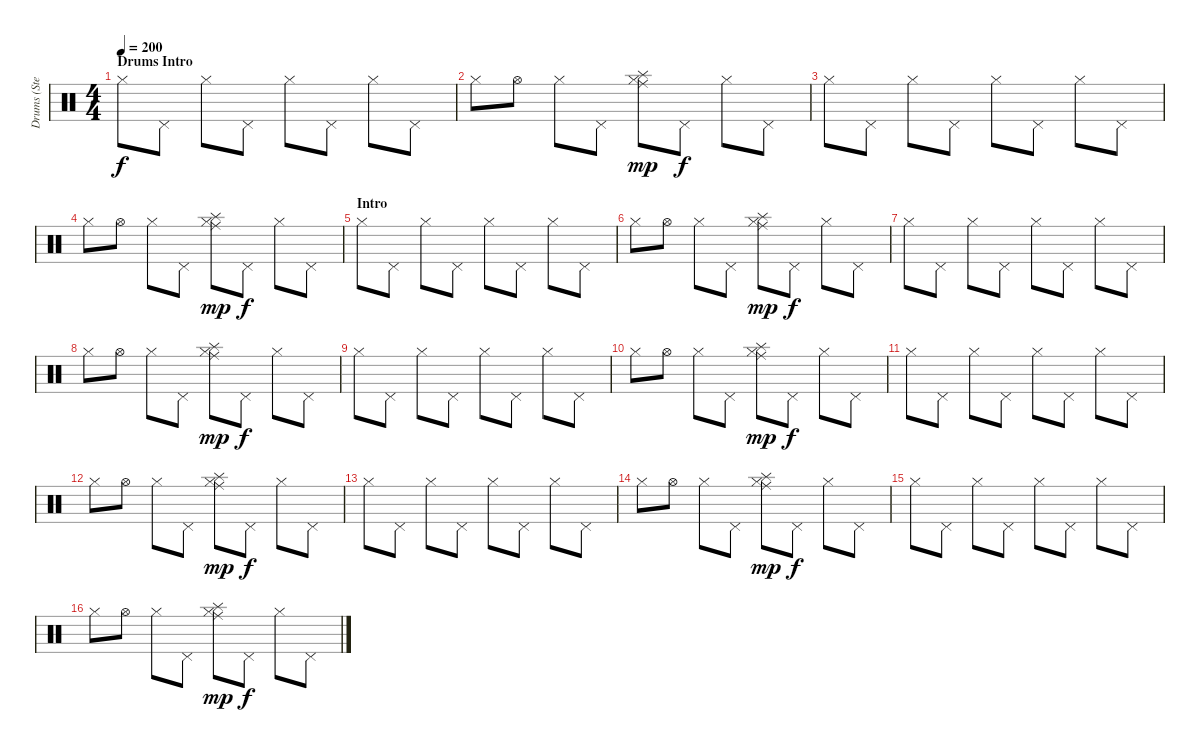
\track ("Drums (Stevo32)" "Drums (Ste") {instrument percussion}
\staff {score}
\articulation defaults
\ts (4 4)
\section ("" "Drums Intro")
\tempo 200
\clef neutral
\ks c "Hi-Hat (closed)".8{dy f} "Pedal Hi-Hat (hit)".8 "Hi-Hat (closed)".8 "Pedal Hi-Hat (hit)".8 "Hi-Hat (closed)".8 "Pedal Hi-Hat (hit)".8 "Hi-Hat (closed)".8 "Pedal Hi-Hat (hit)".8
|
"Hi-Hat (closed)".8 "Hi-Hat (open)".8 "Hi-Hat (closed)".8 "Pedal Hi-Hat (hit)".8 ("Hi-Hat (closed)" "Ride (middle)" "Splash (hit)").8{dy mp} "Pedal Hi-Hat (hit)".8{dy f} "Hi-Hat (closed)".8 "Pedal Hi-Hat (hit)".8 |
"Hi-Hat (closed)".8 "Pedal Hi-Hat (hit)".8 "Hi-Hat (closed)".8 "Pedal Hi-Hat (hit)".8 "Hi-Hat (closed)".8 "Pedal Hi-Hat (hit)".8 "Hi-Hat (closed)".8 "Pedal Hi-Hat (hit)".8 |
"Hi-Hat (closed)".8 "Hi-Hat (open)".8 "Hi-Hat (closed)".8 "Pedal Hi-Hat (hit)".8 ("Hi-Hat (closed)" "Ride (middle)" "Splash (hit)").8{dy mp} "Pedal Hi-Hat (hit)".8{dy f} "Hi-Hat (closed)".8 "Pedal Hi-Hat (hit)".8 |
\section ("" "Intro")
"Hi-Hat (closed)".8 "Pedal Hi-Hat (hit)".8 "Hi-Hat (closed)".8 "Pedal Hi-Hat (hit)".8 "Hi-Hat (closed)".8 "Pedal Hi-Hat (hit)".8 "Hi-Hat (closed)".8 "Pedal Hi-Hat (hit)".8 |
"Hi-Hat (closed)".8 "Hi-Hat (open)".8 "Hi-Hat (closed)".8 "Pedal Hi-Hat (hit)".8 ("Hi-Hat (closed)" "Ride (middle)" "Splash (hit)").8{dy mp} "Pedal Hi-Hat (hit)".8{dy f} "Hi-Hat (closed)".8 "Pedal Hi-Hat (hit)".8 |
"Hi-Hat (closed)".8 "Pedal Hi-Hat (hit)".8 "Hi-Hat (closed)".8 "Pedal Hi-Hat (hit)".8 "Hi-Hat (closed)".8 "Pedal Hi-Hat (hit)".8 "Hi-Hat (closed)".8 "Pedal Hi-Hat (hit)".8 |
"Hi-Hat (closed)".8 "Hi-Hat (open)".8 "Hi-Hat (closed)".8 "Pedal Hi-Hat (hit)".8 ("Hi-Hat (closed)" "Ride (middle)" "Splash (hit)").8{dy mp} "Pedal Hi-Hat (hit)".8{dy f} "Hi-Hat (closed)".8 "Pedal Hi-Hat (hit)".8 |
"Hi-Hat (closed)".8 "Pedal Hi-Hat (hit)".8 "Hi-Hat (closed)".8 "Pedal Hi-Hat (hit)".8 "Hi-Hat (closed)".8 "Pedal Hi-Hat (hit)".8 "Hi-Hat (closed)".8 "Pedal Hi-Hat (hit)".8 |
"Hi-Hat (closed)".8 "Hi-Hat (open)".8 "Hi-Hat (closed)".8 "Pedal Hi-Hat (hit)".8 ("Hi-Hat (closed)" "Ride (middle)" "Splash (hit)").8{dy mp} "Pedal Hi-Hat (hit)".8{dy f} "Hi-Hat (closed)".8 "Pedal Hi-Hat (hit)".8 |
"Hi-Hat (closed)".8 "Pedal Hi-Hat (hit)".8 "Hi-Hat (closed)".8 "Pedal Hi-Hat (hit)".8 "Hi-Hat (closed)".8 "Pedal Hi-Hat (hit)".8 "Hi-Hat (closed)".8 "Pedal Hi-Hat (hit)".8 |
"Hi-Hat (closed)".8 "Hi-Hat (open)".8 "Hi-Hat (closed)".8 "Pedal Hi-Hat (hit)".8 ("Hi-Hat (closed)" "Ride (middle)" "Splash (hit)").8{dy mp} "Pedal Hi-Hat (hit)".8{dy f} "Hi-Hat (closed)".8 "Pedal Hi-Hat (hit)".8 |
"Hi-Hat (closed)".8 "Pedal Hi-Hat (hit)".8 "Hi-Hat (closed)".8 "Pedal Hi-Hat (hit)".8 "Hi-Hat (closed)".8 "Pedal Hi-Hat (hit)".8 "Hi-Hat (closed)".8 "Pedal Hi-Hat (hit)".8 |
"Hi-Hat (closed)".8 "Hi-Hat (open)".8 "Hi-Hat (closed)".8 "Pedal Hi-Hat (hit)".8 ("Hi-Hat (closed)" "Ride (middle)" "Splash (hit)").8{dy mp} "Pedal Hi-Hat (hit)".8{dy f} "Hi-Hat (closed)".8 "Pedal Hi-Hat (hit)".8 |
"Hi-Hat (closed)".8 "Pedal Hi-Hat (hit)".8 "Hi-Hat (closed)".8 "Pedal Hi-Hat (hit)".8 "Hi-Hat (closed)".8 "Pedal Hi-Hat (hit)".8 "Hi-Hat (closed)".8 "Pedal Hi-Hat (hit)".8 |
"Hi-Hat (closed)".8 "Hi-Hat (open)".8 "Hi-Hat (closed)".8 "Pedal Hi-Hat (hit)".8 ("Hi-Hat (closed)" "Ride (middle)" "Splash (hit)").8{dy mp} "Pedal Hi-Hat (hit)".8{dy f} "Hi-Hat (closed)".8 "Pedal Hi-Hat (hit)".8
